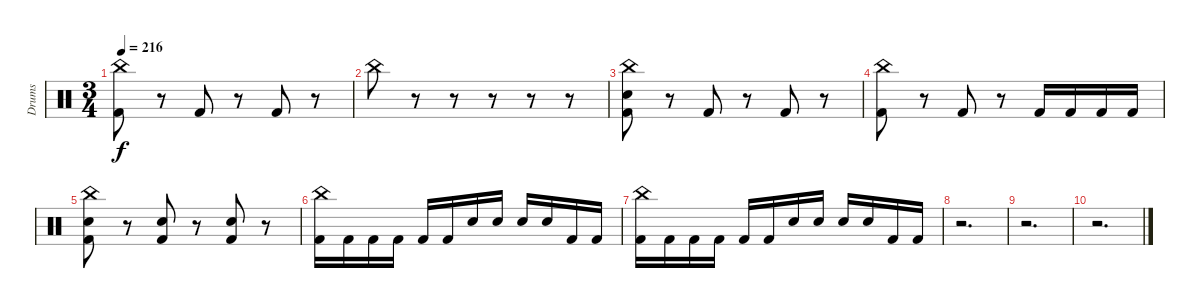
\track ("Drums" "Drums") {instrument percussion}
\staff {score}
\articulation defaults
\ts (3 4)
\tempo 216
\clef neutral
\ks c
("China (hit)" "Kick (hit) 2").8{dy f} r.8 "Kick (hit) 2".8 r.8 "Kick (hit) 2".8 r.8 |
"China (hit)".8 r.8 r.8 r.8 r.8 r.8 |
("China (hit)" "Electric Snare (hit)" "Kick (hit) 2").8 r.8 "Kick (hit) 2".8 r.8 "Kick (hit) 2".8 r.8 |
("China (hit)" "Kick (hit) 2").8 r.8 "Kick (hit) 2".8 r.8 "Kick (hit) 2".16 "Kick (hit) 2".16 "Kick (hit) 2".16 "Kick (hit) 2".16 |
("China (hit)" "Electric Snare (hit)" "Kick (hit) 2").8 r.8 ("Electric Snare (hit)" "Kick (hit) 2").8 r.8 ("Electric Snare (hit)" "Kick (hit) 2").8 r.8 |
("China (hit)" "Kick (hit) 2").16 "Kick (hit) 2".16 "Kick (hit) 2".16 "Kick (hit) 2".16 "Kick (hit) 2".16 "Kick (hit) 2".16 "Electric Snare (hit)".16 "Electric Snare (hit)".16 "Electric Snare (hit)".16 "Electric Snare (hit)".16 "Kick (hit) 2".16 "Kick (hit) 2".16 |
("China (hit)" "Kick (hit) 2").16 "Kick (hit) 2".16 "Kick (hit) 2".16 "Kick (hit) 2".16 "Kick (hit) 2".16 "Kick (hit) 2".16 "Electric Snare (hit)".16 "Electric Snare (hit)".16 "Electric Snare (hit)".16 "Electric Snare (hit)".16 "Kick (hit) 2".16 "Kick (hit) 2".16 |
r.2{d} |
r.2{d} |
r.2{d}
